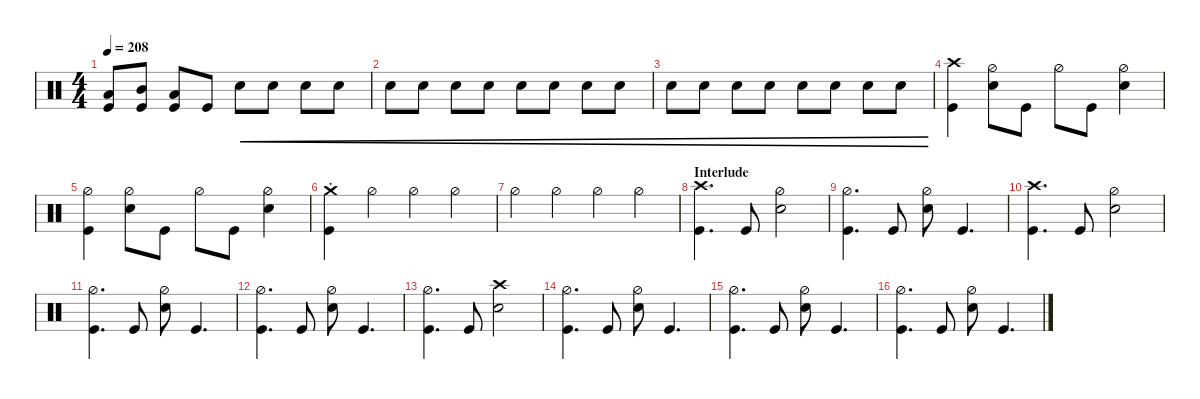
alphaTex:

\defaultSystemsLayout 4
\hideDynamics
\bracketExtendMode nobrackets
\singleTrackTrackNamePolicy hidden
\multiTrackTrackNamePolicy hidden
\otherSystemsTrackNameOrientation horizontal
\track ("Drums" "drm.") {multiBarRest instrument percussion}
\staff {score}
\articulation defaults
\ts (4 4)
\tempo 208
\clef neutral
\ks c
("Kick (hit)" "Low Tom (hit)").8{dy f beam Up} ("Kick (hit)" "Mid Tom (hit)").8{beam Up} ("Kick (hit)" "Low Tom (hit)").8{beam Up} "Kick (hit)".8{beam Up} "Snare (hit) 2".8{cre dy mp beam Down} "Snare (hit) 2".8{cre beam Down} "Snare (hit) 2".8{cre beam Down} "Snare (hit) 2".8{cre beam Down} |
"Snare (hit) 2".8{cre dy mf beam Down} "Snare (hit) 2".8{cre beam Down} "Snare (hit) 2".8{cre beam Down} "Snare (hit) 2".8{cre beam Down} "Snare (hit) 2".8{cre dy f beam Down} "Snare (hit) 2".8{cre beam Down} "Snare (hit) 2".8{cre beam Down} "Snare (hit) 2".8{cre beam Down} |
"Snare (hit) 2".8{cre beam Down} "Snare (hit) 2".8{cre beam Down} "Snare (hit) 2".8{cre beam Down} "Snare (hit) 2".8{cre beam Down} "Snare (hit) 2".8{cre beam Down} "Snare (hit) 2".8{cre beam Down} "Snare (hit) 2".8{cre beam Down} "Snare (hit) 2".8{cre beam Down} |
("Crash high (hit)" "Kick (hit)").4{beam Down} ("Snare (hit) 2" "Hi-Hat (half)").8{beam Down} "Kick (hit)".8{beam Down} "Hi-Hat (half)".8{beam Down} "Kick (hit)".8{beam Down} ("Snare (hit) 2" "Hi-Hat (half)").4{beam Down} |
("Kick (hit)" "Hi-Hat (half)").4{beam Down} ("Snare (hit) 2" "Hi-Hat (half)").8{beam Down} "Kick (hit)".8{beam Down} "Hi-Hat (half)".8{beam Down} "Kick (hit)".8{beam Down} ("Snare (hit) 2" "Hi-Hat (half)").4{beam Down} |
("Kick (hit)" "Crash medium (hit)"{st}).4{beam Down} "Hi-Hat (half)".4{beam Down} "Hi-Hat (half)".4{beam Down} "Hi-Hat (half)".4{beam Down} |
"Hi-Hat (half)".4{beam Down} "Hi-Hat (half)".4{beam Down} "Hi-Hat (half)".4{beam Down} "Hi-Hat (half)".4{beam Down} |
\section ("" "Interlude")
("Crash high (hit)" "Kick (hit)").4{d beam Down} "Kick (hit)".8{beam Up} ("Snare (hit) 2" "Hi-Hat (half)").2{beam Down} |
("Kick (hit)" "Hi-Hat (half)").4{d beam Down} "Kick (hit)".8{beam Up} ("Snare (hit) 2" "Hi-Hat (half)").8{beam Down} "Kick (hit)".4{d beam Up} |
("Crash high (hit)" "Kick (hit)").4{d beam Down} "Kick (hit)".8{beam Up} ("Snare (hit) 2" "Hi-Hat (half)").2{beam Down} |
("Kick (hit)" "Hi-Hat (half)").4{d beam Down} "Kick (hit)".8{beam Up} ("Snare (hit) 2" "Hi-Hat (half)").8{beam Down} "Kick (hit)".4{d beam Up} |
("Kick (hit)" "Hi-Hat (half)").4{d beam Down} "Kick (hit)".8{beam Up} ("Snare (hit) 2" "Hi-Hat (half)").8{beam Down} "Kick (hit)".4{d beam Up} |
("Kick (hit)" "Hi-Hat (half)").4{d beam Down} "Kick (hit)".8{beam Up} ("Snare (hit) 2" "Crash high (hit)").2{beam Down} |
("Kick (hit)" "Hi-Hat (half)").4{d beam Down} "Kick (hit)".8{beam Up} ("Snare (hit) 2" "Hi-Hat (half)").8{beam Down} "Kick (hit)".4{d beam Up} |
("Kick (hit)" "Hi-Hat (half)").4{d beam Down} "Kick (hit)".8{beam Up} ("Snare (hit) 2" "Hi-Hat (half)").8{beam Down} "Kick (hit)".4{d beam Up} |
("Kick (hit)" "Hi-Hat (half)").4{d beam Down} "Kick (hit)".8{beam Up} ("Snare (hit) 2" "Hi-Hat (half)").8{beam Down} "Kick (hit)".4{d beam Up}
